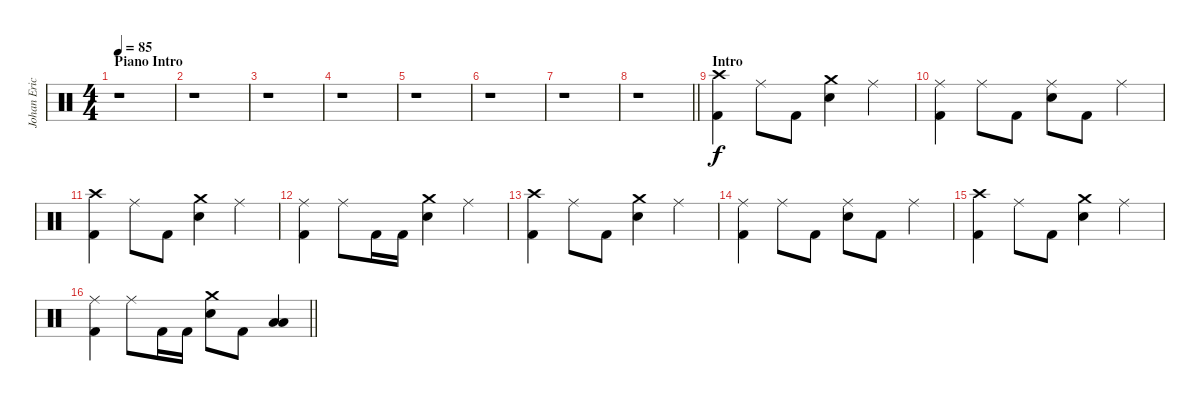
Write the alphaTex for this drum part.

\track ("Johan Ericson" "Johan Eric") {instrument percussion}
\staff {score}
\articulation defaults
\ts (4 4)
\section ("" "Piano Intro")
\tempo 85
\clef neutral
\ks c
r.1{dy f} |
r.1 |
r.1 |
r.1 |
r.1 |
r.1 |
r.1 |
\barLineRight lightlight
r.1 |
\section ("" "Intro")
("Crash high (hit)" "Kick (hit) 2").4 "Ride (middle)".8 "Kick (hit) 2".8 ("Crash medium (hit)" "Snare (hit) 2").4 "Ride (middle)".4 |
("Ride (middle)" "Kick (hit) 2").4 "Ride (middle)".8 "Kick (hit) 2".8 ("Ride (middle)" "Snare (hit) 2").8 "Kick (hit) 2".8 "Ride (middle)".4 |
("Crash high (hit)" "Kick (hit) 2").4 "Ride (middle)".8 "Kick (hit) 2".8 ("Crash medium (hit)" "Snare (hit) 2").4 "Ride (middle)".4 |
("Ride (middle)" "Kick (hit) 2").4 "Ride (middle)".8 "Kick (hit) 2".16 "Kick (hit) 2".16 ("Crash medium (hit)" "Snare (hit) 2").4 "Ride (middle)".4 |
("Crash high (hit)" "Kick (hit) 2").4 "Ride (middle)".8 "Kick (hit) 2".8 ("Crash medium (hit)" "Snare (hit) 2").4 "Ride (middle)".4 |
("Ride (middle)" "Kick (hit) 2").4 "Ride (middle)".8 "Kick (hit) 2".8 ("Ride (middle)" "Snare (hit) 2").8 "Kick (hit) 2".8 "Ride (middle)".4 |
("Crash high (hit)" "Kick (hit) 2").4 "Ride (middle)".8 "Kick (hit) 2".8 ("Crash medium (hit)" "Snare (hit) 2").4 "Ride (middle)".4 |
\barLineRight lightlight
("Ride (middle)" "Kick (hit) 2").4 "Ride (middle)".8 "Kick (hit) 2".16 "Kick (hit) 2".16 ("Crash medium (hit)" "Snare (hit) 2").8 "Kick (hit) 2".8 ("Low Floor Tom (hit)" "Low Tom (hit)").4
